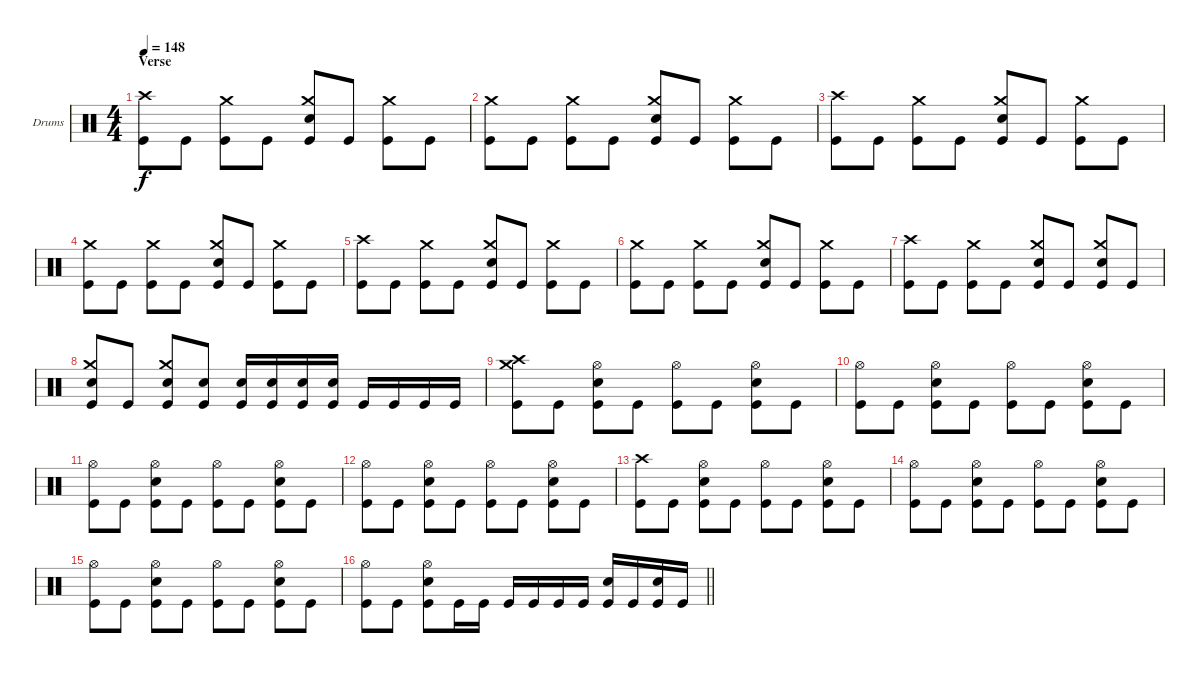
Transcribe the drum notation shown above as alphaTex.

\bracketExtendMode groupsimilarinstruments
\firstSystemTrackNameOrientation horizontal
\otherSystemsTrackNameOrientation horizontal
\track ("Drumkit" "Drums") {instrument percussion}
\staff {score}
\articulation defaults
\ts (4 4)
\section ("" "Verse")
\tempo 148
\clef neutral
\ks c
("Crash high (hit)" "Kick (hit)").8{dy f} "Kick (hit)".8 ("Crash medium (hit)" "Kick (hit)").8 "Kick (hit)".8 ("Crash medium (hit)" "Snare (hit) 2" "Kick (hit)").8 "Kick (hit)".8 ("Crash medium (hit)" "Kick (hit)").8 "Kick (hit)".8 |
("Crash medium (hit)" "Kick (hit)").8 "Kick (hit)".8 ("Crash medium (hit)" "Kick (hit)").8 "Kick (hit)".8 ("Crash medium (hit)" "Snare (hit) 2" "Kick (hit)").8 "Kick (hit)".8 ("Crash medium (hit)" "Kick (hit)").8 "Kick (hit)".8 |
("Crash high (hit)" "Kick (hit)").8 "Kick (hit)".8 ("Crash medium (hit)" "Kick (hit)").8 "Kick (hit)".8 ("Crash medium (hit)" "Snare (hit) 2" "Kick (hit)").8 "Kick (hit)".8 ("Crash medium (hit)" "Kick (hit)").8 "Kick (hit)".8 |
("Crash medium (hit)" "Kick (hit)").8 "Kick (hit)".8 ("Crash medium (hit)" "Kick (hit)").8 "Kick (hit)".8 ("Crash medium (hit)" "Snare (hit) 2" "Kick (hit)").8 "Kick (hit)".8 ("Crash medium (hit)" "Kick (hit)").8 "Kick (hit)".8 |
("Crash high (hit)" "Kick (hit)").8 "Kick (hit)".8 ("Crash medium (hit)" "Kick (hit)").8 "Kick (hit)".8 ("Crash medium (hit)" "Snare (hit) 2" "Kick (hit)").8 "Kick (hit)".8 ("Crash medium (hit)" "Kick (hit)").8 "Kick (hit)".8 |
("Crash medium (hit)" "Kick (hit)").8 "Kick (hit)".8 ("Crash medium (hit)" "Kick (hit)").8 "Kick (hit)".8 ("Crash medium (hit)" "Snare (hit) 2" "Kick (hit)").8 "Kick (hit)".8 ("Crash medium (hit)" "Kick (hit)").8 "Kick (hit)".8 |
("Crash high (hit)" "Kick (hit)").8 "Kick (hit)".8 ("Crash medium (hit)" "Kick (hit)").8 "Kick (hit)".8 ("Crash medium (hit)" "Snare (hit) 2" "Kick (hit)").8 "Kick (hit)".8 ("Crash medium (hit)" "Snare (hit) 2" "Kick (hit)").8 "Kick (hit)".8 |
("Crash medium (hit)" "Snare (hit) 2" "Kick (hit)").8 "Kick (hit)".8 ("Crash medium (hit)" "Snare (hit) 2" "Kick (hit)").8 ("Snare (hit) 2" "Kick (hit)").8 ("Snare (hit) 2" "Kick (hit)").16 ("Snare (hit) 2" "Kick (hit)").16 ("Snare (hit) 2" "Kick (hit)").16 ("Snare (hit) 2" "Kick (hit)").16 "Kick (hit)".16 "Kick (hit)".16 "Kick (hit)".16 "Kick (hit)".16 |
("Crash high (hit)" "Crash medium (hit)" "Kick (hit)").8 "Kick (hit)".8 ("Hi-Hat (open)" "Snare (hit) 2" "Kick (hit)").8 "Kick (hit)".8 ("Hi-Hat (open)" "Kick (hit)").8 "Kick (hit)".8 ("Hi-Hat (open)" "Snare (hit) 2" "Kick (hit)").8 "Kick (hit)".8 |
("Hi-Hat (open)" "Kick (hit)").8 "Kick (hit)".8 ("Hi-Hat (open)" "Snare (hit) 2" "Kick (hit)").8 "Kick (hit)".8 ("Hi-Hat (open)" "Kick (hit)").8 "Kick (hit)".8 ("Hi-Hat (open)" "Snare (hit) 2" "Kick (hit)").8 "Kick (hit)".8 |
("Hi-Hat (open)" "Kick (hit)").8 "Kick (hit)".8 ("Hi-Hat (open)" "Snare (hit) 2" "Kick (hit)").8 "Kick (hit)".8 ("Hi-Hat (open)" "Kick (hit)").8 "Kick (hit)".8 ("Hi-Hat (open)" "Snare (hit) 2" "Kick (hit)").8 "Kick (hit)".8 |
("Hi-Hat (open)" "Kick (hit)").8 "Kick (hit)".8 ("Hi-Hat (open)" "Snare (hit) 2" "Kick (hit)").8 "Kick (hit)".8 ("Hi-Hat (open)" "Kick (hit)").8 "Kick (hit)".8 ("Hi-Hat (open)" "Snare (hit) 2" "Kick (hit)").8 "Kick (hit)".8 |
("Crash high (hit)" "Kick (hit)").8 "Kick (hit)".8 ("Hi-Hat (open)" "Snare (hit) 2" "Kick (hit)").8 "Kick (hit)".8 ("Hi-Hat (open)" "Kick (hit)").8 "Kick (hit)".8 ("Hi-Hat (open)" "Snare (hit) 2" "Kick (hit)").8 "Kick (hit)".8 |
("Hi-Hat (open)" "Kick (hit)").8 "Kick (hit)".8 ("Hi-Hat (open)" "Snare (hit) 2" "Kick (hit)").8 "Kick (hit)".8 ("Hi-Hat (open)" "Kick (hit)").8 "Kick (hit)".8 ("Hi-Hat (open)" "Snare (hit) 2" "Kick (hit)").8 "Kick (hit)".8 |
("Hi-Hat (open)" "Kick (hit)").8 "Kick (hit)".8 ("Hi-Hat (open)" "Snare (hit) 2" "Kick (hit)").8 "Kick (hit)".8 ("Hi-Hat (open)" "Kick (hit)").8 "Kick (hit)".8 ("Hi-Hat (open)" "Snare (hit) 2" "Kick (hit)").8 "Kick (hit)".8 |
\barLineRight lightlight
("Hi-Hat (open)" "Kick (hit)").8 "Kick (hit)".8 ("Hi-Hat (open)" "Snare (hit) 2" "Kick (hit)").8 "Kick (hit)".16 "Kick (hit)".16 "Kick (hit)".16 "Kick (hit)".16 "Kick (hit)".16 "Kick (hit)".16 ("Snare (hit) 2" "Kick (hit)").16 "Kick (hit)".16 ("Snare (hit) 2" "Kick (hit)").16 "Kick (hit)".16
